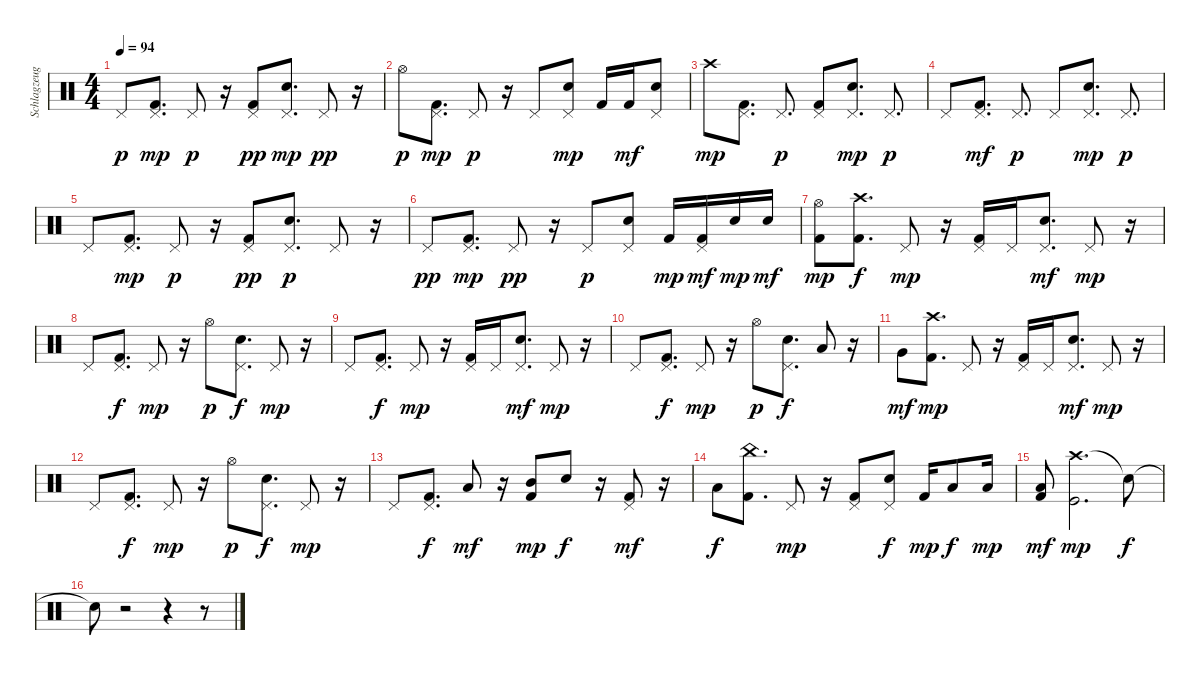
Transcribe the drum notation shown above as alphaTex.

\track ("Schlagzeug" "Schlagzeug") {instrument percussion}
\staff {score}
\articulation defaults
\ts (4 4)
\tempo 94
\clef neutral
\ks c "Pedal Hi-Hat (hit)".8{dy p}
("Kick (hit) 2" "Pedal Hi-Hat (hit)").8{d dy mp} "Pedal Hi-Hat (hit)".8{dy p} r.16 ("Kick (hit) 2" "Pedal Hi-Hat (hit)").8{dy pp} ("Electric Snare (hit)" "Pedal Hi-Hat (hit)").8{d dy mp} "Pedal Hi-Hat (hit)".8{dy pp} r.16 |
"Hi-Hat (open)".8{dy p} ("Kick (hit) 2" "Pedal Hi-Hat (hit)").8{d dy mp} "Pedal Hi-Hat (hit)".8{dy p} r.16 "Pedal Hi-Hat (hit)".8 ("Pedal Hi-Hat (hit)" "Electric Snare (hit)").8{dy mp} "Kick (hit) 2".16 "Kick (hit) 2".16{dy mf} ("Electric Snare (hit)" "Pedal Hi-Hat (hit)").8 |
"Crash high (hit)".8{dy mp} ("Kick (hit) 2" "Pedal Hi-Hat (hit)").8{d} "Pedal Hi-Hat (hit)".8{d dy p} ("Kick (hit) 2" "Pedal Hi-Hat (hit)").8 ("Electric Snare (hit)" "Pedal Hi-Hat (hit)").8{d dy mp} "Pedal Hi-Hat (hit)".8{d dy p} |
"Pedal Hi-Hat (hit)".8 ("Kick (hit) 2" "Pedal Hi-Hat (hit)").8{d dy mf} "Pedal Hi-Hat (hit)".8{d dy p} "Pedal Hi-Hat (hit)".8 ("Electric Snare (hit)" "Pedal Hi-Hat (hit)").8{d dy mp} "Pedal Hi-Hat (hit)".8{d dy p} |
"Pedal Hi-Hat (hit)".8 ("Kick (hit) 2" "Pedal Hi-Hat (hit)").8{d dy mp} "Pedal Hi-Hat (hit)".8{dy p} r.16 ("Kick (hit) 2" "Pedal Hi-Hat (hit)").8{dy pp} ("Electric Snare (hit)" "Pedal Hi-Hat (hit)").8{d dy p} "Pedal Hi-Hat (hit)".8 r.16 |
"Pedal Hi-Hat (hit)".8{dy pp} ("Kick (hit) 2" "Pedal Hi-Hat (hit)").8{d dy mp} "Pedal Hi-Hat (hit)".8{dy pp} r.16 "Pedal Hi-Hat (hit)".8{dy p} ("Electric Snare (hit)" "Pedal Hi-Hat (hit)").8 "Kick (hit) 2".16{dy mp} ("Pedal Hi-Hat (hit)" "Kick (hit) 2").16{dy mf} "Electric Snare (hit)".16{dy mp} "Electric Snare (hit)".16{dy mf} |
("Hi-Hat (open)" "Kick (hit) 2").8{dy mp} ("Crash high (hit)" "Kick (hit) 2").8{d dy f} "Pedal Hi-Hat (hit)".8{dy mp} r.16 ("Kick (hit) 2" "Pedal Hi-Hat (hit)").16 "Pedal Hi-Hat (hit)".16 ("Electric Snare (hit)" "Pedal Hi-Hat (hit)").8{d dy mf} "Pedal Hi-Hat (hit)".8{dy mp} r.16 |
"Pedal Hi-Hat (hit)".8 ("Kick (hit) 2" "Pedal Hi-Hat (hit)").8{d dy f} "Pedal Hi-Hat (hit)".8{dy mp} r.16 "Hi-Hat (open)".8{dy p} ("Electric Snare (hit)" "Pedal Hi-Hat (hit)").8{d dy f} "Pedal Hi-Hat (hit)".8{dy mp} r.16 |
"Pedal Hi-Hat (hit)".8 ("Kick (hit) 2" "Pedal Hi-Hat (hit)").8{d dy f} "Pedal Hi-Hat (hit)".8{dy mp} r.16 ("Kick (hit) 2" "Pedal Hi-Hat (hit)").16 "Pedal Hi-Hat (hit)".16 ("Electric Snare (hit)" "Pedal Hi-Hat (hit)").8{d dy mf} "Pedal Hi-Hat (hit)".8{dy mp} r.16 |
"Pedal Hi-Hat (hit)".8 ("Kick (hit) 2" "Pedal Hi-Hat (hit)").8{d dy f} "Pedal Hi-Hat (hit)".8{dy mp} r.16 "Hi-Hat (open)".8{dy p} ("Electric Snare (hit)" "Pedal Hi-Hat (hit)").8{d dy f} "Low Tom (hit)".8 r.16 |
"Very Low Tom (hit)".8{dy mf} ("Crash high (hit)" "Kick (hit) 2").8{d dy mp} "Pedal Hi-Hat (hit)".8 r.16 ("Kick (hit) 2" "Pedal Hi-Hat (hit)").16 "Pedal Hi-Hat (hit)".16 ("Electric Snare (hit)" "Pedal Hi-Hat (hit)").8{d dy mf} "Pedal Hi-Hat (hit)".8{dy mp} r.16 |
"Pedal Hi-Hat (hit)".8 ("Kick (hit) 2" "Pedal Hi-Hat (hit)").8{d dy f} "Pedal Hi-Hat (hit)".8{dy mp} r.16 "Hi-Hat (open)".8{dy p} ("Electric Snare (hit)" "Pedal Hi-Hat (hit)").8{d dy f} "Pedal Hi-Hat (hit)".8{dy mp} r.16 |
"Pedal Hi-Hat (hit)".8 ("Pedal Hi-Hat (hit)" "Kick (hit) 2").8{d dy f} "Low Tom (hit)".8{dy mf} r.16 ("Mid Tom (hit)" "Kick (hit) 2").8{dy mp} "Electric Snare (hit)".8{dy f} r.16 ("Pedal Hi-Hat (hit)" "Kick (hit) 2").8{dy mf} r.16 |
"Low Tom (hit)".8{dy f} ("China (hit)" "Kick (hit) 2").8{d} "Pedal Hi-Hat (hit)".8{dy mp} r.16 ("Kick (hit) 2" "Pedal Hi-Hat (hit)").8 ("Pedal Hi-Hat (hit)" "Electric Snare (hit)").8{dy f} "Kick (hit) 2".16{dy mp} "Low Tom (hit)".8{dy f} "Low Tom (hit)".16{dy mp} |
("Low Floor Tom (hit)" "Kick (hit) 2").8{dy mf} ("Crash high (hit)" "Kick (hit)").2{d dy mp} "Snare (hit)"{t}.8{dy f} |
"Snare (hit)"{t}.8 r.2 r.4 r.8
